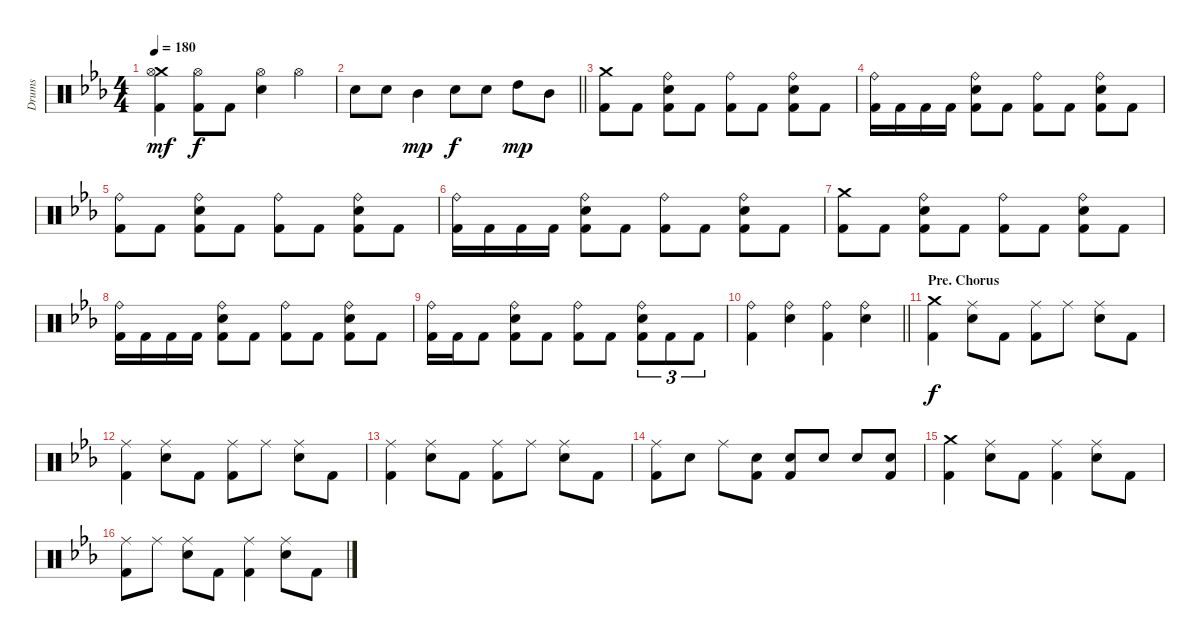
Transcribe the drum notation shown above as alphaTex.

\track ("Drums" "Drums") {instrument percussion}
\staff {score}
\articulation defaults
\ts (4 4)
\tempo 180
\clef neutral
\ks eb
("Crash medium (hit)" "Hi-Hat (open)" "Kick (hit) 2").4{dy mf} ("Hi-Hat (open)" "Kick (hit) 2").8{dy f} "Kick (hit) 2".8 ("Hi-Hat (open)" "Snare (hit) 2").4 "Hi-Hat (open)".4 |
\barLineRight lightlight "Snare (hit) 2".8 "Snare (hit) 2".8 "Mid Tom (hit)".4{dy mp} "Snare (hit) 2".8{dy f} "Snare (hit) 2".8 "High Tom (hit)".8{dy mp} "Mid Tom (hit)".8
|
\section ("" "")
("Crash medium (hit)" "Kick (hit) 2").8 "Kick (hit) 2".8 ("Ride (bell)" "Snare (hit) 2" "Kick (hit) 2").8 "Kick (hit) 2".8 ("Ride (bell)" "Kick (hit) 2").8 "Kick (hit) 2".8 ("Ride (bell)" "Snare (hit) 2" "Kick (hit) 2").8 "Kick (hit) 2".8 |
("Ride (bell)" "Kick (hit) 2").16 "Kick (hit) 2".16 "Kick (hit) 2".16 "Kick (hit) 2".16 ("Ride (bell)" "Snare (hit) 2" "Kick (hit) 2").8 "Kick (hit) 2".8 ("Ride (bell)" "Kick (hit) 2").8 "Kick (hit) 2".8 ("Ride (bell)" "Snare (hit) 2" "Kick (hit) 2").8 "Kick (hit) 2".8 |
("Ride (bell)" "Kick (hit) 2").8 "Kick (hit) 2".8 ("Ride (bell)" "Snare (hit) 2" "Kick (hit) 2").8 "Kick (hit) 2".8 ("Ride (bell)" "Kick (hit) 2").8 "Kick (hit) 2".8 ("Ride (bell)" "Snare (hit) 2" "Kick (hit) 2").8 "Kick (hit) 2".8 |
("Ride (bell)" "Kick (hit) 2").16 "Kick (hit) 2".16 "Kick (hit) 2".16 "Kick (hit) 2".16 ("Ride (bell)" "Snare (hit) 2" "Kick (hit) 2").8 "Kick (hit) 2".8 ("Ride (bell)" "Kick (hit) 2").8 "Kick (hit) 2".8 ("Ride (bell)" "Snare (hit) 2" "Kick (hit) 2").8 "Kick (hit) 2".8 |
("Crash medium (hit)" "Kick (hit) 2").8 "Kick (hit) 2".8 ("Ride (bell)" "Snare (hit) 2" "Kick (hit) 2").8 "Kick (hit) 2".8 ("Ride (bell)" "Kick (hit) 2").8 "Kick (hit) 2".8 ("Ride (bell)" "Snare (hit) 2" "Kick (hit) 2").8 "Kick (hit) 2".8 |
("Ride (bell)" "Kick (hit) 2").16 "Kick (hit) 2".16 "Kick (hit) 2".16 "Kick (hit) 2".16 ("Ride (bell)" "Snare (hit) 2" "Kick (hit) 2").8 "Kick (hit) 2".8 ("Ride (bell)" "Kick (hit) 2").8 "Kick (hit) 2".8 ("Ride (bell)" "Snare (hit) 2" "Kick (hit) 2").8 "Kick (hit) 2".8 |
("Ride (bell)" "Kick (hit) 2").16 "Kick (hit) 2".16 "Kick (hit) 2".8 ("Ride (bell)" "Snare (hit) 2" "Kick (hit) 2").8 "Kick (hit) 2".8 ("Ride (bell)" "Kick (hit) 2").8 "Kick (hit) 2".8 ("Ride (bell)" "Snare (hit) 2" "Kick (hit) 2").8{tu (3 2)} "Kick (hit) 2".8{tu (3 2)} "Kick (hit) 2".8{tu (3 2)} |
\barLineRight lightlight
("Ride (bell)" "Kick (hit) 2").4 ("Ride (bell)" "Snare (hit) 2").4 ("Ride (bell)" "Kick (hit) 2").4 ("Ride (bell)" "Snare (hit) 2").4 |
\section ("" "Pre. Chorus")
("Crash medium (hit)" "Kick (hit) 2").4{dy f} ("Ride (middle)" "Snare (hit) 2").8 "Kick (hit) 2".8 ("Ride (middle)" "Kick (hit) 2").8 "Ride (middle)".8 ("Ride (middle)" "Snare (hit) 2").8 "Kick (hit) 2".8 |
("Ride (middle)" "Kick (hit) 2").4 ("Ride (middle)" "Snare (hit) 2").8 "Kick (hit) 2".8 ("Ride (middle)" "Kick (hit) 2").8 "Ride (middle)".8 ("Ride (middle)" "Snare (hit) 2").8 "Kick (hit) 2".8 |
("Ride (middle)" "Kick (hit) 2").4 ("Ride (middle)" "Snare (hit) 2").8 "Kick (hit) 2".8 ("Ride (middle)" "Kick (hit) 2").8 "Ride (middle)".8 ("Ride (middle)" "Snare (hit) 2").8 "Kick (hit) 2".8 |
("Ride (middle)" "Kick (hit) 2").8 "Snare (hit) 2".8 "Ride (middle)".8 ("Snare (hit) 2" "Kick (hit) 2").8 ("Snare (hit) 2" "Kick (hit) 2").8 "Snare (hit) 2".8 "Snare (hit) 2".8 ("Snare (hit) 2" "Kick (hit) 2").8 |
("Crash medium (hit)" "Kick (hit) 2").4 ("Ride (middle)" "Snare (hit) 2").8 "Kick (hit) 2".8 ("Ride (middle)" "Kick (hit) 2").4 ("Ride (middle)" "Snare (hit) 2").8 "Kick (hit) 2".8 |
("Ride (middle)" "Kick (hit) 2").8 "Ride (middle)".8 ("Ride (middle)" "Snare (hit) 2").8 "Kick (hit) 2".8 ("Ride (middle)" "Kick (hit) 2").4 ("Ride (middle)" "Snare (hit) 2").8 "Kick (hit) 2".8
